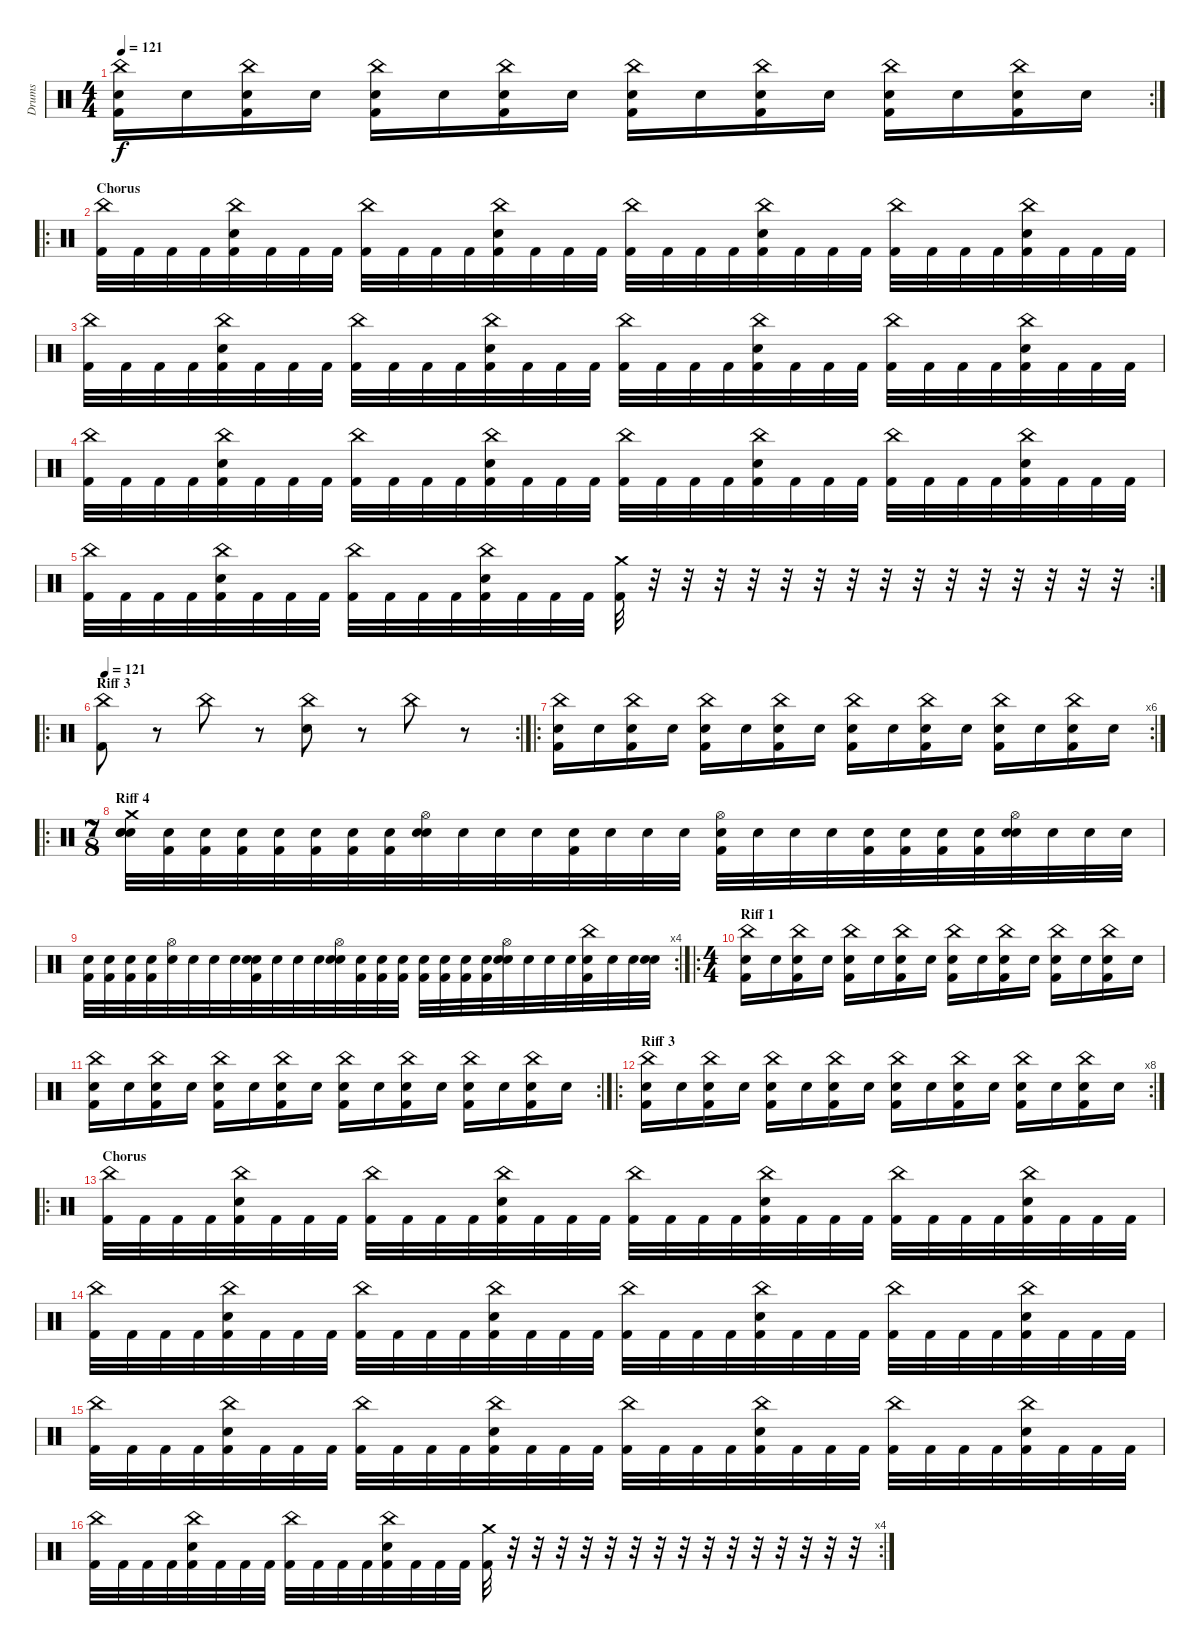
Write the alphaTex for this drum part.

\track ("Drums" "Drums") {instrument percussion}
\staff {score}
\articulation defaults
\rc 2
\ts (4 4)
\tempo 121
\clef neutral
\ks c
("China (hit)" "Kick (hit) 2" "Snare (hit) 2").16{dy f} "Snare (hit) 2".16 ("China (hit)" "Kick (hit) 2" "Snare (hit) 2").16 "Snare (hit) 2".16 ("China (hit)" "Kick (hit) 2" "Snare (hit) 2").16 "Snare (hit) 2".16 ("China (hit)" "Kick (hit) 2" "Snare (hit) 2").16 "Snare (hit) 2".16 ("China (hit)" "Kick (hit) 2" "Snare (hit) 2").16 "Snare (hit) 2".16 ("China (hit)" "Kick (hit) 2" "Snare (hit) 2").16 "Snare (hit) 2".16 ("China (hit)" "Kick (hit) 2" "Snare (hit) 2").16 "Snare (hit) 2".16 ("China (hit)" "Kick (hit) 2" "Snare (hit) 2").16 "Snare (hit) 2".16 |
\ro
\section ("" "Chorus")
("Kick (hit) 2" "China (hit)").32 "Kick (hit) 2".32 "Kick (hit) 2".32 "Kick (hit) 2".32 ("Kick (hit) 2" "Snare (hit) 2" "China (hit)").32 "Kick (hit) 2".32 "Kick (hit) 2".32 "Kick (hit) 2".32 ("Kick (hit) 2" "China (hit)").32 "Kick (hit) 2".32 "Kick (hit) 2".32 "Kick (hit) 2".32 ("Kick (hit) 2" "Snare (hit) 2" "China (hit)").32 "Kick (hit) 2".32 "Kick (hit) 2".32 "Kick (hit) 2".32 ("Kick (hit) 2" "China (hit)").32 "Kick (hit) 2".32 "Kick (hit) 2".32 "Kick (hit) 2".32 ("Kick (hit) 2" "Snare (hit) 2" "China (hit)").32 "Kick (hit) 2".32 "Kick (hit) 2".32 "Kick (hit) 2".32 ("Kick (hit) 2" "China (hit)").32 "Kick (hit) 2".32 "Kick (hit) 2".32 "Kick (hit) 2".32 ("Kick (hit) 2" "Snare (hit) 2" "China (hit)").32 "Kick (hit) 2".32 "Kick (hit) 2".32 "Kick (hit) 2".32 |
("Kick (hit) 2" "China (hit)").32 "Kick (hit) 2".32 "Kick (hit) 2".32 "Kick (hit) 2".32 ("Kick (hit) 2" "Snare (hit) 2" "China (hit)").32 "Kick (hit) 2".32 "Kick (hit) 2".32 "Kick (hit) 2".32 ("Kick (hit) 2" "China (hit)").32 "Kick (hit) 2".32 "Kick (hit) 2".32 "Kick (hit) 2".32 ("Kick (hit) 2" "Snare (hit) 2" "China (hit)").32 "Kick (hit) 2".32 "Kick (hit) 2".32 "Kick (hit) 2".32 ("Kick (hit) 2" "China (hit)").32 "Kick (hit) 2".32 "Kick (hit) 2".32 "Kick (hit) 2".32 ("Kick (hit) 2" "Snare (hit) 2" "China (hit)").32 "Kick (hit) 2".32 "Kick (hit) 2".32 "Kick (hit) 2".32 ("Kick (hit) 2" "China (hit)").32 "Kick (hit) 2".32 "Kick (hit) 2".32 "Kick (hit) 2".32 ("Kick (hit) 2" "Snare (hit) 2" "China (hit)").32 "Kick (hit) 2".32 "Kick (hit) 2".32 "Kick (hit) 2".32 |
("Kick (hit) 2" "China (hit)").32 "Kick (hit) 2".32 "Kick (hit) 2".32 "Kick (hit) 2".32 ("Kick (hit) 2" "Snare (hit) 2" "China (hit)").32 "Kick (hit) 2".32 "Kick (hit) 2".32 "Kick (hit) 2".32 ("Kick (hit) 2" "China (hit)").32 "Kick (hit) 2".32 "Kick (hit) 2".32 "Kick (hit) 2".32 ("Kick (hit) 2" "Snare (hit) 2" "China (hit)").32 "Kick (hit) 2".32 "Kick (hit) 2".32 "Kick (hit) 2".32 ("Kick (hit) 2" "China (hit)").32 "Kick (hit) 2".32 "Kick (hit) 2".32 "Kick (hit) 2".32 ("Kick (hit) 2" "Snare (hit) 2" "China (hit)").32 "Kick (hit) 2".32 "Kick (hit) 2".32 "Kick (hit) 2".32 ("Kick (hit) 2" "China (hit)").32 "Kick (hit) 2".32 "Kick (hit) 2".32 "Kick (hit) 2".32 ("Kick (hit) 2" "Snare (hit) 2" "China (hit)").32 "Kick (hit) 2".32 "Kick (hit) 2".32 "Kick (hit) 2".32 |
\rc 2
("Kick (hit) 2" "China (hit)").32 "Kick (hit) 2".32 "Kick (hit) 2".32 "Kick (hit) 2".32 ("Kick (hit) 2" "Snare (hit) 2" "China (hit)").32 "Kick (hit) 2".32 "Kick (hit) 2".32 "Kick (hit) 2".32 ("Kick (hit) 2" "China (hit)").32 "Kick (hit) 2".32 "Kick (hit) 2".32 "Kick (hit) 2".32 ("Kick (hit) 2" "Snare (hit) 2" "China (hit)").32 "Kick (hit) 2".32 "Kick (hit) 2".32 "Kick (hit) 2".32 ("Kick (hit) 2" "Crash medium (hit)").32 r.32 r.32 r.32 r.32 r.32 r.32 r.32 r.32 r.32 r.32 r.32 r.32 r.32 r.32 r.32 |
\ro
\rc 2
\section ("" "Riff 3")
\tempo 121
("Kick (hit) 2" "China (hit)").8 r.8 "China (hit)".8 r.8 ("Snare (hit) 2" "China (hit)").8 r.8 "China (hit)".8 r.8 |
\ro
\rc 6
("China (hit)" "Kick (hit) 2" "Snare (hit) 2").16 "Snare (hit) 2".16 ("China (hit)" "Kick (hit) 2" "Snare (hit) 2").16 "Snare (hit) 2".16 ("China (hit)" "Kick (hit) 2" "Snare (hit) 2").16 "Snare (hit) 2".16 ("China (hit)" "Kick (hit) 2" "Snare (hit) 2").16 "Snare (hit) 2".16 ("China (hit)" "Kick (hit) 2" "Snare (hit) 2").16 "Snare (hit) 2".16 ("China (hit)" "Kick (hit) 2" "Snare (hit) 2").16 "Snare (hit) 2".16 ("China (hit)" "Kick (hit) 2" "Snare (hit) 2").16 "Snare (hit) 2".16 ("China (hit)" "Kick (hit) 2" "Snare (hit) 2").16 "Snare (hit) 2".16 |
\ro
\ts (7 8)
\section ("" "Riff 4")
("Snare (hit)" "Snare (hit)" "Snare (hit) 2" "Crash medium (hit)").32 ("Snare (hit)" "Kick (hit) 2").32 ("Snare (hit)" "Kick (hit) 2").32 ("Snare (hit)" "Kick (hit) 2").32 ("Snare (hit)" "Kick (hit) 2").32 ("Snare (hit)" "Kick (hit) 2").32 ("Snare (hit)" "Kick (hit) 2").32 ("Snare (hit)" "Kick (hit) 2").32 ("Snare (hit)" "Snare (hit) 2" "Hi-Hat (open)").32 "Snare (hit)".32 "Snare (hit)".32 "Snare (hit)".32 ("Snare (hit)" "Kick (hit) 2").32 "Snare (hit)".32 "Snare (hit)".32 "Snare (hit)".32 ("Snare (hit)" "Kick (hit) 2" "Hi-Hat (open)").32 "Snare (hit)".32 "Snare (hit)".32 "Snare (hit)".32 ("Snare (hit)" "Kick (hit) 2").32 ("Snare (hit)" "Kick (hit) 2").32 ("Snare (hit)" "Kick (hit) 2").32 ("Snare (hit)" "Kick (hit) 2").32 ("Snare (hit)" "Snare (hit) 2" "Hi-Hat (open)").32 "Snare (hit)".32 "Snare (hit)".32 "Snare (hit)".32 |
\rc 4
("Snare (hit)" "Kick (hit) 2").32 ("Snare (hit)" "Kick (hit) 2").32 ("Snare (hit)" "Kick (hit) 2").32 ("Snare (hit)" "Kick (hit) 2").32 ("Snare (hit)" "Hi-Hat (open)").32 "Snare (hit)".32 "Snare (hit)".32 "Snare (hit)".32 ("Snare (hit)" "Kick (hit) 2" "Snare (hit) 2").32 "Snare (hit)".32 "Snare (hit)".32 "Snare (hit)".32 ("Snare (hit)" "Snare (hit) 2" "Hi-Hat (open)").32 ("Snare (hit)" "Kick (hit) 2").32 ("Snare (hit)" "Kick (hit) 2").32 ("Snare (hit)" "Kick (hit) 2").32 ("Snare (hit)" "Kick (hit) 2").32 ("Snare (hit)" "Kick (hit) 2").32 ("Snare (hit)" "Kick (hit) 2").32 ("Snare (hit)" "Kick (hit) 2").32 ("Snare (hit)" "Snare (hit) 2" "Hi-Hat (open)").32 "Snare (hit)".32 "Snare (hit)".32 "Snare (hit)".32 ("Snare (hit)" "Kick (hit) 2" "China (hit)").32 "Snare (hit)".32 "Snare (hit)".32 ("Snare (hit)" "Snare (hit)").32 |
\ro
\ts (4 4)
\section ("" "Riff 1")
("China (hit)" "Kick (hit) 2" "Snare (hit) 2").16 "Snare (hit) 2".16 ("China (hit)" "Kick (hit) 2" "Snare (hit) 2").16 "Snare (hit) 2".16 ("China (hit)" "Kick (hit) 2" "Snare (hit) 2").16 "Snare (hit) 2".16 ("China (hit)" "Kick (hit) 2" "Snare (hit) 2").16 "Snare (hit) 2".16 ("China (hit)" "Kick (hit) 2" "Snare (hit) 2").16 "Snare (hit) 2".16 ("China (hit)" "Kick (hit) 2" "Snare (hit) 2").16 "Snare (hit) 2".16 ("China (hit)" "Kick (hit) 2" "Snare (hit) 2").16 "Snare (hit) 2".16 ("China (hit)" "Kick (hit) 2" "Snare (hit) 2").16 "Snare (hit) 2".16 |
\rc 2
("China (hit)" "Kick (hit) 2" "Snare (hit) 2").16 "Snare (hit) 2".16 ("China (hit)" "Kick (hit) 2" "Snare (hit) 2").16 "Snare (hit) 2".16 ("China (hit)" "Kick (hit) 2" "Snare (hit) 2").16 "Snare (hit) 2".16 ("China (hit)" "Kick (hit) 2" "Snare (hit) 2").16 "Snare (hit) 2".16 ("China (hit)" "Kick (hit) 2" "Snare (hit) 2").16 "Snare (hit) 2".16 ("China (hit)" "Kick (hit) 2" "Snare (hit) 2").16 "Snare (hit) 2".16 ("China (hit)" "Kick (hit) 2" "Snare (hit) 2").16 "Snare (hit) 2".16 ("China (hit)" "Kick (hit) 2" "Snare (hit) 2").16 "Snare (hit) 2".16 |
\ro
\rc 8
\section ("" "Riff 3")
("China (hit)" "Kick (hit) 2" "Snare (hit) 2").16 "Snare (hit) 2".16 ("China (hit)" "Kick (hit) 2" "Snare (hit) 2").16 "Snare (hit) 2".16 ("China (hit)" "Kick (hit) 2" "Snare (hit) 2").16 "Snare (hit) 2".16 ("China (hit)" "Kick (hit) 2" "Snare (hit) 2").16 "Snare (hit) 2".16 ("China (hit)" "Kick (hit) 2" "Snare (hit) 2").16 "Snare (hit) 2".16 ("China (hit)" "Kick (hit) 2" "Snare (hit) 2").16 "Snare (hit) 2".16 ("China (hit)" "Kick (hit) 2" "Snare (hit) 2").16 "Snare (hit) 2".16 ("China (hit)" "Kick (hit) 2" "Snare (hit) 2").16 "Snare (hit) 2".16 |
\ro
\section ("" "Chorus")
("Kick (hit) 2" "China (hit)").32 "Kick (hit) 2".32 "Kick (hit) 2".32 "Kick (hit) 2".32 ("Kick (hit) 2" "Snare (hit) 2" "China (hit)").32 "Kick (hit) 2".32 "Kick (hit) 2".32 "Kick (hit) 2".32 ("Kick (hit) 2" "China (hit)").32 "Kick (hit) 2".32 "Kick (hit) 2".32 "Kick (hit) 2".32 ("Kick (hit) 2" "Snare (hit) 2" "China (hit)").32 "Kick (hit) 2".32 "Kick (hit) 2".32 "Kick (hit) 2".32 ("Kick (hit) 2" "China (hit)").32 "Kick (hit) 2".32 "Kick (hit) 2".32 "Kick (hit) 2".32 ("Kick (hit) 2" "Snare (hit) 2" "China (hit)").32 "Kick (hit) 2".32 "Kick (hit) 2".32 "Kick (hit) 2".32 ("Kick (hit) 2" "China (hit)").32 "Kick (hit) 2".32 "Kick (hit) 2".32 "Kick (hit) 2".32 ("Kick (hit) 2" "Snare (hit) 2" "China (hit)").32 "Kick (hit) 2".32 "Kick (hit) 2".32 "Kick (hit) 2".32 |
("Kick (hit) 2" "China (hit)").32 "Kick (hit) 2".32 "Kick (hit) 2".32 "Kick (hit) 2".32 ("Kick (hit) 2" "Snare (hit) 2" "China (hit)").32 "Kick (hit) 2".32 "Kick (hit) 2".32 "Kick (hit) 2".32 ("Kick (hit) 2" "China (hit)").32 "Kick (hit) 2".32 "Kick (hit) 2".32 "Kick (hit) 2".32 ("Kick (hit) 2" "Snare (hit) 2" "China (hit)").32 "Kick (hit) 2".32 "Kick (hit) 2".32 "Kick (hit) 2".32 ("Kick (hit) 2" "China (hit)").32 "Kick (hit) 2".32 "Kick (hit) 2".32 "Kick (hit) 2".32 ("Kick (hit) 2" "Snare (hit) 2" "China (hit)").32 "Kick (hit) 2".32 "Kick (hit) 2".32 "Kick (hit) 2".32 ("Kick (hit) 2" "China (hit)").32 "Kick (hit) 2".32 "Kick (hit) 2".32 "Kick (hit) 2".32 ("Kick (hit) 2" "Snare (hit) 2" "China (hit)").32 "Kick (hit) 2".32 "Kick (hit) 2".32 "Kick (hit) 2".32 |
("Kick (hit) 2" "China (hit)").32 "Kick (hit) 2".32 "Kick (hit) 2".32 "Kick (hit) 2".32 ("Kick (hit) 2" "Snare (hit) 2" "China (hit)").32 "Kick (hit) 2".32 "Kick (hit) 2".32 "Kick (hit) 2".32 ("Kick (hit) 2" "China (hit)").32 "Kick (hit) 2".32 "Kick (hit) 2".32 "Kick (hit) 2".32 ("Kick (hit) 2" "Snare (hit) 2" "China (hit)").32 "Kick (hit) 2".32 "Kick (hit) 2".32 "Kick (hit) 2".32 ("Kick (hit) 2" "China (hit)").32 "Kick (hit) 2".32 "Kick (hit) 2".32 "Kick (hit) 2".32 ("Kick (hit) 2" "Snare (hit) 2" "China (hit)").32 "Kick (hit) 2".32 "Kick (hit) 2".32 "Kick (hit) 2".32 ("Kick (hit) 2" "China (hit)").32 "Kick (hit) 2".32 "Kick (hit) 2".32 "Kick (hit) 2".32 ("Kick (hit) 2" "Snare (hit) 2" "China (hit)").32 "Kick (hit) 2".32 "Kick (hit) 2".32 "Kick (hit) 2".32 |
\rc 4
("Kick (hit) 2" "China (hit)").32 "Kick (hit) 2".32 "Kick (hit) 2".32 "Kick (hit) 2".32 ("Kick (hit) 2" "Snare (hit) 2" "China (hit)").32 "Kick (hit) 2".32 "Kick (hit) 2".32 "Kick (hit) 2".32 ("Kick (hit) 2" "China (hit)").32 "Kick (hit) 2".32 "Kick (hit) 2".32 "Kick (hit) 2".32 ("Kick (hit) 2" "Snare (hit) 2" "China (hit)").32 "Kick (hit) 2".32 "Kick (hit) 2".32 "Kick (hit) 2".32 ("Kick (hit) 2" "Crash medium (hit)").32 r.32 r.32 r.32 r.32 r.32 r.32 r.32 r.32 r.32 r.32 r.32 r.32 r.32 r.32 r.32
